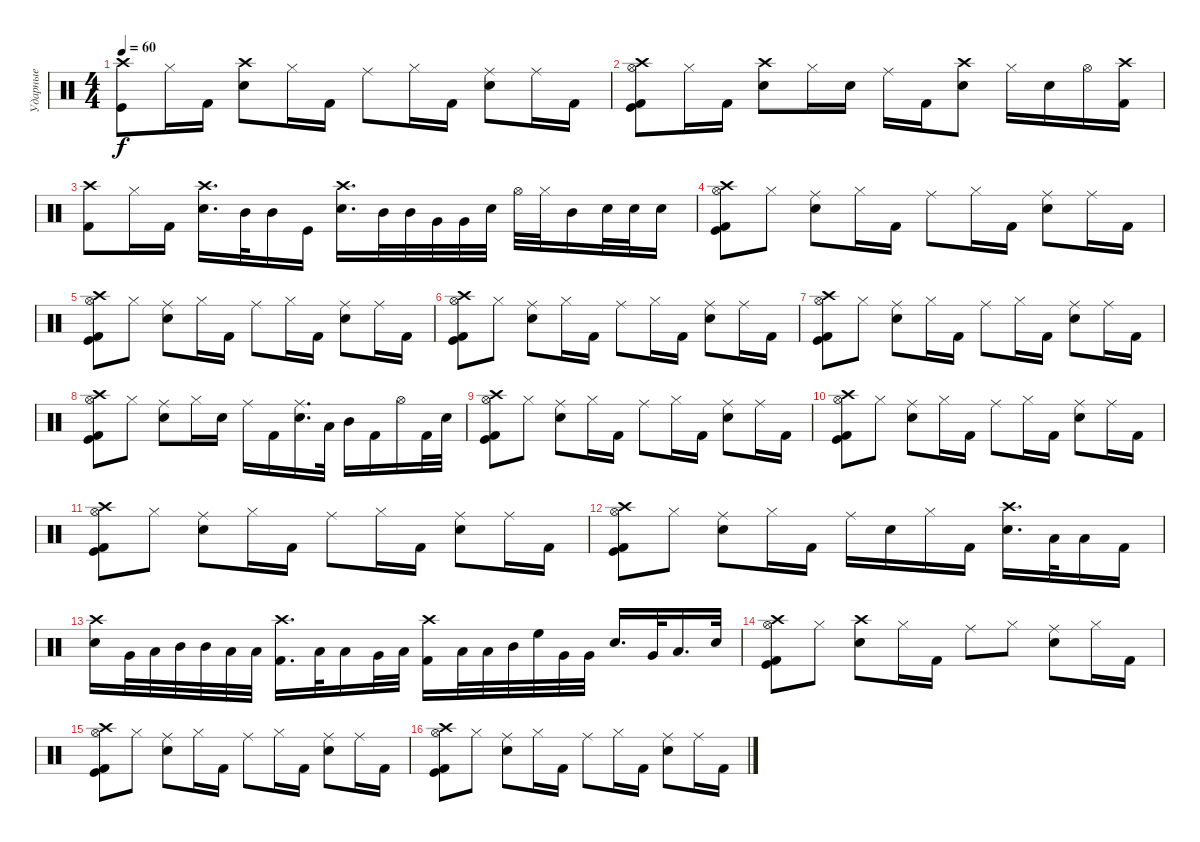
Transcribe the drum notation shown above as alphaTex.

\track ("Ударные" "Ударные") {instrument percussion}
\staff {score}
\articulation defaults
\ts (4 4)
\tempo 60
\clef neutral
\ks c
("Crash high (hit)" "Kick (hit)").8{dy f} "Hi-Hat (closed)".16 "Kick (hit) 2".16 ("Crash high (hit)" "Snare (hit) 2").8 "Hi-Hat (closed)".16 "Kick (hit) 2".16 "Ride (middle)".8 "Hi-Hat (closed)".16 "Kick (hit) 2".16 ("Ride (middle)" "Snare (hit) 2").8 "Ride (middle)".16 "Kick (hit) 2".16 |
("Crash high (hit)" "Hi-Hat (open)" "Kick (hit)" "Kick (hit) 2").8 "Hi-Hat (closed)".16 "Kick (hit) 2".16 ("Crash high (hit)" "Snare (hit) 2").8 "Hi-Hat (closed)".16 "Snare (hit) 2".16 "Ride (middle)".16 "Kick (hit) 2".16 ("Crash high (hit)" "Snare (hit) 2").8 "Hi-Hat (closed)".16 "Snare (hit) 2".16 "Hi-Hat (open)".16 ("Crash high (hit)" "Kick (hit) 2").16 |
("Crash high (hit)" "Kick (hit) 2").8 "Hi-Hat (closed)".16 "Kick (hit) 2".16 ("Crash high (hit)" "Snare (hit) 2").16{d} "Mid Tom (hit)".32 "Mid Tom (hit)".16 "Kick (hit)".16 ("Crash high (hit)" "Snare (hit) 2").16{d} "Mid Tom (hit)".32 "Mid Tom (hit)".32 "Very Low Tom (hit)".32 "Very Low Tom (hit)".32 "Snare (hit) 2".32 "Hi-Hat (open)".32 "Hi-Hat (closed)".32 "Mid Tom (hit)".16 "Snare (hit) 2".32 "Snare (hit) 2".32 "Snare (hit) 2".16 |
("Crash high (hit)" "Hi-Hat (open)" "Kick (hit)" "Kick (hit) 2").8 "Hi-Hat (closed)".8 ("Ride (middle)" "Snare (hit) 2").8 "Hi-Hat (closed)".16 "Kick (hit) 2".16 "Ride (middle)".8 "Hi-Hat (closed)".16 "Kick (hit) 2".16 ("Ride (middle)" "Snare (hit) 2").8 "Ride (middle)".16 "Kick (hit) 2".16 |
("Crash high (hit)" "Hi-Hat (open)" "Kick (hit)" "Kick (hit) 2").8 "Hi-Hat (closed)".8 ("Ride (middle)" "Snare (hit) 2").8 "Hi-Hat (closed)".16 "Kick (hit) 2".16 "Ride (middle)".8 "Hi-Hat (closed)".16 "Kick (hit) 2".16 ("Ride (middle)" "Snare (hit) 2").8 "Ride (middle)".16 "Kick (hit) 2".16 |
("Crash high (hit)" "Hi-Hat (open)" "Kick (hit)" "Kick (hit) 2").8 "Hi-Hat (closed)".8 ("Ride (middle)" "Snare (hit) 2").8 "Hi-Hat (closed)".16 "Kick (hit) 2".16 "Ride (middle)".8 "Hi-Hat (closed)".16 "Kick (hit) 2".16 ("Ride (middle)" "Snare (hit) 2").8 "Ride (middle)".16 "Kick (hit) 2".16 |
("Crash high (hit)" "Hi-Hat (open)" "Kick (hit)" "Kick (hit) 2").8 "Hi-Hat (closed)".8 ("Ride (middle)" "Snare (hit) 2").8 "Hi-Hat (closed)".16 "Kick (hit) 2".16 "Ride (middle)".8 "Hi-Hat (closed)".16 "Kick (hit) 2".16 ("Ride (middle)" "Snare (hit) 2").8 "Ride (middle)".16 "Kick (hit) 2".16 |
("Crash high (hit)" "Hi-Hat (open)" "Kick (hit)" "Kick (hit) 2").8 "Hi-Hat (closed)".8 ("Ride (middle)" "Snare (hit) 2").8 "Hi-Hat (closed)".16 "Snare (hit) 2".16 "Ride (middle)".16 "Kick (hit) 2".16 ("Ride (middle)" "Snare (hit) 2").16{d} "Low Tom (hit)".32 "Mid Tom (hit)".16 "Kick (hit) 2".16 "Hi-Hat (open)".16 "Kick (hit) 2".32 "Snare (hit) 2".32 |
("Crash high (hit)" "Hi-Hat (open)" "Kick (hit)" "Kick (hit) 2").8 "Hi-Hat (closed)".8 ("Ride (middle)" "Snare (hit) 2").8 "Hi-Hat (closed)".16 "Kick (hit) 2".16 "Ride (middle)".8 "Hi-Hat (closed)".16 "Kick (hit) 2".16 ("Ride (middle)" "Snare (hit) 2").8 "Ride (middle)".16 "Kick (hit) 2".16 |
("Crash high (hit)" "Hi-Hat (open)" "Kick (hit)" "Kick (hit) 2").8 "Hi-Hat (closed)".8 ("Ride (middle)" "Snare (hit) 2").8 "Hi-Hat (closed)".16 "Kick (hit) 2".16 "Ride (middle)".8 "Hi-Hat (closed)".16 "Kick (hit) 2".16 ("Ride (middle)" "Snare (hit) 2").8 "Ride (middle)".16 "Kick (hit) 2".16 |
("Crash high (hit)" "Hi-Hat (open)" "Kick (hit)" "Kick (hit) 2").8 "Hi-Hat (closed)".8 ("Ride (middle)" "Snare (hit) 2").8 "Hi-Hat (closed)".16 "Kick (hit) 2".16 "Ride (middle)".8 "Hi-Hat (closed)".16 "Kick (hit) 2".16 ("Ride (middle)" "Snare (hit) 2").8 "Ride (middle)".16 "Kick (hit) 2".16 |
("Crash high (hit)" "Hi-Hat (open)" "Kick (hit)" "Kick (hit) 2").8 "Hi-Hat (closed)".8 ("Ride (middle)" "Snare (hit) 2").8 "Hi-Hat (closed)".16 "Kick (hit) 2".16 "Ride (middle)".16 "Snare (hit) 2".16 "Hi-Hat (closed)".16 "Kick (hit) 2".16 ("Crash high (hit)" "Snare (hit) 2").16{d} "Low Tom (hit)".32 "Low Tom (hit)".16 "Kick (hit) 2".16 |
("Crash high (hit)" "Snare (hit) 2").16 "Very Low Tom (hit)".32 "Low Tom (hit)".32 "Mid Tom (hit)".32 "Mid Tom (hit)".32 "Low Tom (hit)".32 "Low Tom (hit)".32 ("Crash high (hit)" "Kick (hit) 2").16{d} "Low Tom (hit)".32 "Low Tom (hit)".16 "Very Low Tom (hit)".32 "Low Tom (hit)".32 ("Crash high (hit)" "Kick (hit) 2").16 "Low Tom (hit)".32 "Low Tom (hit)".32 "Mid Tom (hit)".32 "High Floor Tom (hit)".32 "Very Low Tom (hit)".32 "Very Low Tom (hit)".32 "Snare (hit) 2".16{d} "Very Low Tom (hit)".32 "Low Tom (hit)".16{d} "Snare (hit) 2".32 |
("Crash high (hit)" "Kick (hit) 2" "Kick (hit)" "Hi-Hat (open)").8 "Hi-Hat (closed)".8 ("Crash high (hit)" "Snare (hit) 2").8 "Hi-Hat (closed)".16 "Kick (hit) 2".16 "Ride (middle)".8 "Hi-Hat (closed)".8 ("Ride (middle)" "Snare (hit) 2").8 "Hi-Hat (closed)".16 "Kick (hit) 2".16 |
("Crash high (hit)" "Hi-Hat (open)" "Kick (hit)" "Kick (hit) 2").8 "Hi-Hat (closed)".8 ("Ride (middle)" "Snare (hit) 2").8 "Hi-Hat (closed)".16 "Kick (hit) 2".16 "Ride (middle)".8 "Hi-Hat (closed)".16 "Kick (hit) 2".16 ("Ride (middle)" "Snare (hit) 2").8 "Ride (middle)".16 "Kick (hit) 2".16 |
("Crash high (hit)" "Hi-Hat (open)" "Kick (hit)" "Kick (hit) 2").8 "Hi-Hat (closed)".8 ("Ride (middle)" "Snare (hit) 2").8 "Hi-Hat (closed)".16 "Kick (hit) 2".16 "Ride (middle)".8 "Hi-Hat (closed)".16 "Kick (hit) 2".16 ("Ride (middle)" "Snare (hit) 2").8 "Ride (middle)".16 "Kick (hit) 2".16
